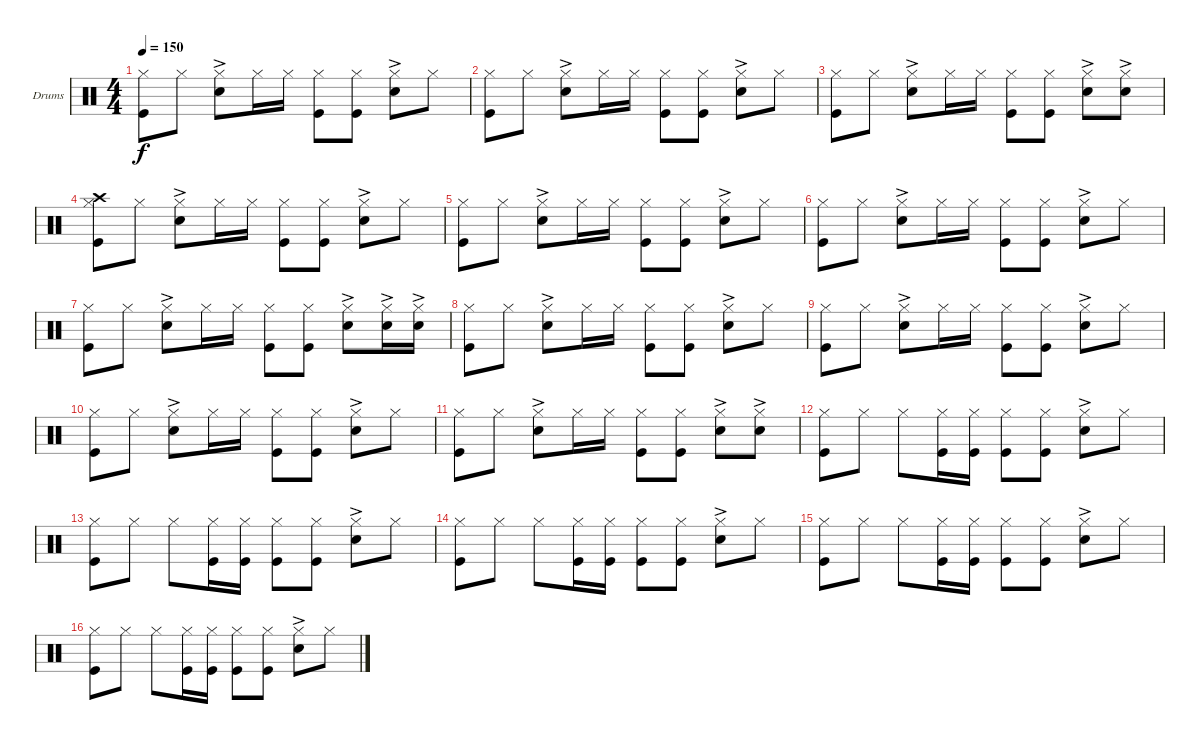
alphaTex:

\defaultSystemsLayout 4
\bracketExtendMode groupsimilarinstruments
\firstSystemTrackNameOrientation horizontal
\otherSystemsTrackNameOrientation horizontal
\track ("Drumkit" "Drums") {instrument percussion}
\staff {score}
\articulation defaults
\ts (4 4)
\tempo 150
\clef neutral
\ks c
("Kick (hit)" "Hi-Hat (closed)").8{dy f} "Hi-Hat (closed)".8 ("Snare (hit) 2"{ac} "Hi-Hat (closed)").8 "Hi-Hat (closed)".16 "Hi-Hat (closed)".16 ("Kick (hit)" "Hi-Hat (closed)").8 ("Kick (hit)" "Hi-Hat (closed)").8 ("Snare (hit) 2"{ac} "Hi-Hat (closed)").8 "Hi-Hat (closed)".8 |
("Kick (hit)" "Hi-Hat (closed)").8 "Hi-Hat (closed)".8 ("Snare (hit) 2"{ac} "Hi-Hat (closed)").8 "Hi-Hat (closed)".16 "Hi-Hat (closed)".16 ("Kick (hit)" "Hi-Hat (closed)").8 ("Kick (hit)" "Hi-Hat (closed)").8 ("Snare (hit) 2"{ac} "Hi-Hat (closed)").8 "Hi-Hat (closed)".8 |
("Kick (hit)" "Hi-Hat (closed)").8 "Hi-Hat (closed)".8 ("Snare (hit) 2"{ac} "Hi-Hat (closed)").8 "Hi-Hat (closed)".16 "Hi-Hat (closed)".16 ("Kick (hit)" "Hi-Hat (closed)").8 ("Kick (hit)" "Hi-Hat (closed)").8 ("Snare (hit) 2"{ac} "Hi-Hat (closed)").8 ("Hi-Hat (closed)" "Snare (hit) 2"{ac}).8 |
("Kick (hit)" "Hi-Hat (closed)" "Crash high (hit)").8 "Hi-Hat (closed)".8 ("Snare (hit) 2"{ac} "Hi-Hat (closed)").8 "Hi-Hat (closed)".16 "Hi-Hat (closed)".16 ("Kick (hit)" "Hi-Hat (closed)").8 ("Kick (hit)" "Hi-Hat (closed)").8 ("Snare (hit) 2"{ac} "Hi-Hat (closed)").8 "Hi-Hat (closed)".8 |
("Kick (hit)" "Hi-Hat (closed)").8 "Hi-Hat (closed)".8 ("Snare (hit) 2"{ac} "Hi-Hat (closed)").8 "Hi-Hat (closed)".16 "Hi-Hat (closed)".16 ("Kick (hit)" "Hi-Hat (closed)").8 ("Kick (hit)" "Hi-Hat (closed)").8 ("Snare (hit) 2"{ac} "Hi-Hat (closed)").8 "Hi-Hat (closed)".8 |
("Kick (hit)" "Hi-Hat (closed)").8 "Hi-Hat (closed)".8 ("Snare (hit) 2"{ac} "Hi-Hat (closed)").8 "Hi-Hat (closed)".16 "Hi-Hat (closed)".16 ("Kick (hit)" "Hi-Hat (closed)").8 ("Kick (hit)" "Hi-Hat (closed)").8 ("Snare (hit) 2"{ac} "Hi-Hat (closed)").8 "Hi-Hat (closed)".8 |
("Kick (hit)" "Hi-Hat (closed)").8 "Hi-Hat (closed)".8 ("Snare (hit) 2"{ac} "Hi-Hat (closed)").8 "Hi-Hat (closed)".16 "Hi-Hat (closed)".16 ("Kick (hit)" "Hi-Hat (closed)").8 ("Kick (hit)" "Hi-Hat (closed)").8 ("Snare (hit) 2"{ac} "Hi-Hat (closed)").8 ("Snare (hit) 2"{ac} "Hi-Hat (closed)").16 ("Snare (hit) 2"{ac} "Hi-Hat (closed)").16 |
("Kick (hit)" "Hi-Hat (closed)").8 "Hi-Hat (closed)".8 ("Snare (hit) 2"{ac} "Hi-Hat (closed)").8 "Hi-Hat (closed)".16 "Hi-Hat (closed)".16 ("Kick (hit)" "Hi-Hat (closed)").8 ("Kick (hit)" "Hi-Hat (closed)").8 ("Snare (hit) 2"{ac} "Hi-Hat (closed)").8 "Hi-Hat (closed)".8 |
("Kick (hit)" "Hi-Hat (closed)").8 "Hi-Hat (closed)".8 ("Snare (hit) 2"{ac} "Hi-Hat (closed)").8 "Hi-Hat (closed)".16 "Hi-Hat (closed)".16 ("Kick (hit)" "Hi-Hat (closed)").8 ("Kick (hit)" "Hi-Hat (closed)").8 ("Snare (hit) 2"{ac} "Hi-Hat (closed)").8 "Hi-Hat (closed)".8 |
("Kick (hit)" "Hi-Hat (closed)").8 "Hi-Hat (closed)".8 ("Snare (hit) 2"{ac} "Hi-Hat (closed)").8 "Hi-Hat (closed)".16 "Hi-Hat (closed)".16 ("Kick (hit)" "Hi-Hat (closed)").8 ("Kick (hit)" "Hi-Hat (closed)").8 ("Snare (hit) 2"{ac} "Hi-Hat (closed)").8 "Hi-Hat (closed)".8 |
("Kick (hit)" "Hi-Hat (closed)").8 "Hi-Hat (closed)".8 ("Snare (hit) 2"{ac} "Hi-Hat (closed)").8 "Hi-Hat (closed)".16 "Hi-Hat (closed)".16 ("Kick (hit)" "Hi-Hat (closed)").8 ("Kick (hit)" "Hi-Hat (closed)").8 ("Snare (hit) 2"{ac} "Hi-Hat (closed)").8 ("Snare (hit) 2"{ac} "Hi-Hat (closed)").8 |
("Kick (hit)" "Hi-Hat (closed)").8 "Hi-Hat (closed)".8 "Hi-Hat (closed)".8 ("Kick (hit)" "Hi-Hat (closed)").16 ("Kick (hit)" "Hi-Hat (closed)").16 ("Kick (hit)" "Hi-Hat (closed)").8 ("Kick (hit)" "Hi-Hat (closed)").8 ("Snare (hit) 2"{ac} "Hi-Hat (closed)").8 "Hi-Hat (closed)".8 |
("Kick (hit)" "Hi-Hat (closed)").8 "Hi-Hat (closed)".8 "Hi-Hat (closed)".8 ("Kick (hit)" "Hi-Hat (closed)").16 ("Kick (hit)" "Hi-Hat (closed)").16 ("Kick (hit)" "Hi-Hat (closed)").8 ("Kick (hit)" "Hi-Hat (closed)").8 ("Snare (hit) 2"{ac} "Hi-Hat (closed)").8 "Hi-Hat (closed)".8 |
("Kick (hit)" "Hi-Hat (closed)").8 "Hi-Hat (closed)".8 "Hi-Hat (closed)".8 ("Kick (hit)" "Hi-Hat (closed)").16 ("Kick (hit)" "Hi-Hat (closed)").16 ("Kick (hit)" "Hi-Hat (closed)").8 ("Kick (hit)" "Hi-Hat (closed)").8 ("Snare (hit) 2"{ac} "Hi-Hat (closed)").8 "Hi-Hat (closed)".8 |
("Kick (hit)" "Hi-Hat (closed)").8 "Hi-Hat (closed)".8 "Hi-Hat (closed)".8 ("Kick (hit)" "Hi-Hat (closed)").16 ("Kick (hit)" "Hi-Hat (closed)").16 ("Kick (hit)" "Hi-Hat (closed)").8 ("Kick (hit)" "Hi-Hat (closed)").8 ("Snare (hit) 2"{ac} "Hi-Hat (closed)").8 "Hi-Hat (closed)".8 |
("Kick (hit)" "Hi-Hat (closed)").8 "Hi-Hat (closed)".8 "Hi-Hat (closed)".8 ("Kick (hit)" "Hi-Hat (closed)").16 ("Kick (hit)" "Hi-Hat (closed)").16 ("Kick (hit)" "Hi-Hat (closed)").8 ("Kick (hit)" "Hi-Hat (closed)").8 ("Snare (hit) 2"{ac} "Hi-Hat (closed)").8 "Hi-Hat (closed)".8
